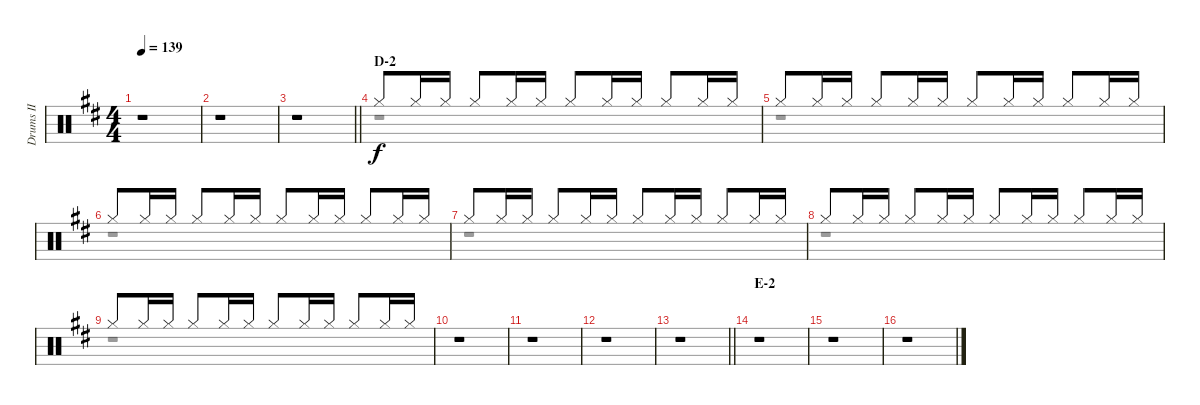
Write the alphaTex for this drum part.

\track ("Drums II" "Drums II") {instrument percussion}
\staff {score}
\articulation defaults
\voice
\ts (4 4)
\tempo 139
\clef neutral
\ks d
r.1{dy f} |
r.1 |
\barLineRight lightlight
r.1 |
\section ("" "D-2")
"Hi-Hat (closed)".8 "Hi-Hat (closed)".16 "Hi-Hat (closed)".16 "Hi-Hat (closed)".8 "Hi-Hat (closed)".16 "Hi-Hat (closed)".16 "Hi-Hat (closed)".8 "Hi-Hat (closed)".16 "Hi-Hat (closed)".16 "Hi-Hat (closed)".8 "Hi-Hat (closed)".16 "Hi-Hat (closed)".16 |
"Hi-Hat (closed)".8 "Hi-Hat (closed)".16 "Hi-Hat (closed)".16 "Hi-Hat (closed)".8 "Hi-Hat (closed)".16 "Hi-Hat (closed)".16 "Hi-Hat (closed)".8 "Hi-Hat (closed)".16 "Hi-Hat (closed)".16 "Hi-Hat (closed)".8 "Hi-Hat (closed)".16 "Hi-Hat (closed)".16 |
"Hi-Hat (closed)".8 "Hi-Hat (closed)".16 "Hi-Hat (closed)".16 "Hi-Hat (closed)".8 "Hi-Hat (closed)".16 "Hi-Hat (closed)".16 "Hi-Hat (closed)".8 "Hi-Hat (closed)".16 "Hi-Hat (closed)".16 "Hi-Hat (closed)".8 "Hi-Hat (closed)".16 "Hi-Hat (closed)".16 |
"Hi-Hat (closed)".8 "Hi-Hat (closed)".16 "Hi-Hat (closed)".16 "Hi-Hat (closed)".8 "Hi-Hat (closed)".16 "Hi-Hat (closed)".16 "Hi-Hat (closed)".8 "Hi-Hat (closed)".16 "Hi-Hat (closed)".16 "Hi-Hat (closed)".8 "Hi-Hat (closed)".16 "Hi-Hat (closed)".16 |
"Hi-Hat (closed)".8 "Hi-Hat (closed)".16 "Hi-Hat (closed)".16 "Hi-Hat (closed)".8 "Hi-Hat (closed)".16 "Hi-Hat (closed)".16 "Hi-Hat (closed)".8 "Hi-Hat (closed)".16 "Hi-Hat (closed)".16 "Hi-Hat (closed)".8 "Hi-Hat (closed)".16 "Hi-Hat (closed)".16 |
"Hi-Hat (closed)".8 "Hi-Hat (closed)".16 "Hi-Hat (closed)".16 "Hi-Hat (closed)".8 "Hi-Hat (closed)".16 "Hi-Hat (closed)".16 "Hi-Hat (closed)".8 "Hi-Hat (closed)".16 "Hi-Hat (closed)".16 "Hi-Hat (closed)".8 "Hi-Hat (closed)".16 "Hi-Hat (closed)".16 |
r.1 |
r.1 |
r.1 |
\barLineRight lightlight
r.1 |
\section ("" "E-2")
r.1 |
r.1 |
r.1
\voice
\clef neutral
\ottava regular
\simile none
\ks d
r.1{dy f} |
r.1 |
\barLineRight lightlight
r.1 |
r.1 |
r.1 |
r.1 |
r.1 |
r.1 |
r.1 |
r.1 |
r.1 |
r.1 |
\barLineRight lightlight
r.1 |
r.1 |
r.1 |
r.1
